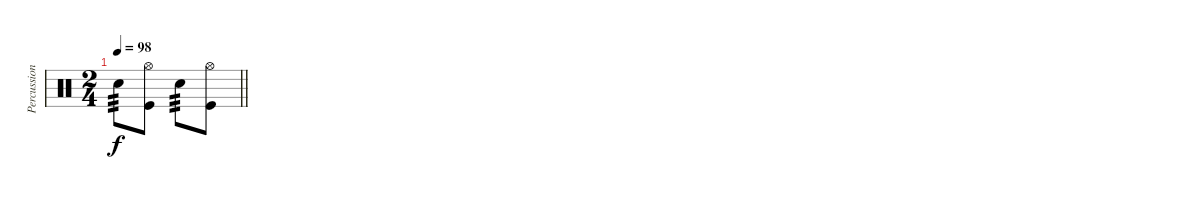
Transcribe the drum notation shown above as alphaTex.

\track ("Percussion" "Percussion") {instrument percussion}
\staff {score}
\articulation defaults
\ts (2 4)
\tempo 98
\clef neutral
\barLineRight lightlight
\ks c "Snare (hit) 2".8{tp 3 dy f}
("Kick (hit)" "Hi-Hat (open)").8 "Snare (hit) 2".8{tp 3} ("Kick (hit)" "Hi-Hat (open)").8
